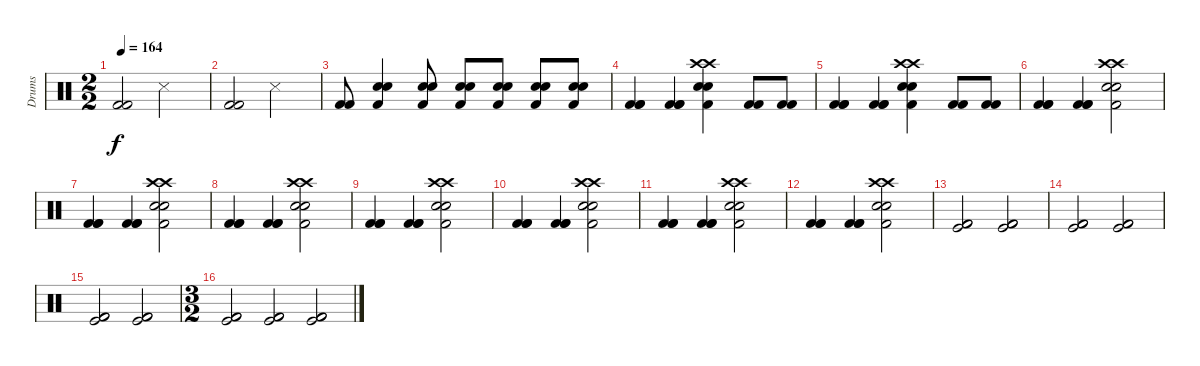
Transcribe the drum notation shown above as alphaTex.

\track ("Drums" "Drums") {instrument percussion}
\staff {score}
\articulation defaults
\ts (2 2)
\tempo 164
\clef neutral
\ks c
("Kick (hit) 2" "Kick (hit) 2").2{dy f} "Snare (side stick) 3".2 |
("Kick (hit) 2" "Kick (hit) 2").2 "Snare (side stick) 3".2 |
("Kick (hit) 2" "Kick (hit) 2").8 ("Kick (hit) 2" "Snare (hit) 2" "Snare (hit) 2").4 ("Kick (hit) 2" "Snare (hit) 2" "Snare (hit) 2").8 ("Kick (hit) 2" "Snare (hit) 2" "Snare (hit) 2").8 ("Kick (hit) 2" "Snare (hit) 2" "Snare (hit) 2").8 ("Kick (hit) 2" "Snare (hit) 2" "Snare (hit) 2").8 ("Kick (hit) 2" "Snare (hit) 2" "Snare (hit) 2").8 |
("Kick (hit) 2" "Kick (hit) 2" "Kick (hit) 2").4 ("Kick (hit) 2" "Kick (hit) 2" "Kick (hit) 2").4 ("Crash high (hit)" "Kick (hit) 2" "Snare (hit) 2" "Snare (hit) 2" "Crash high (hit)").4 ("Kick (hit) 2" "Kick (hit) 2").8 ("Kick (hit) 2" "Kick (hit) 2").8 |
("Kick (hit) 2" "Kick (hit) 2" "Kick (hit) 2").4 ("Kick (hit) 2" "Kick (hit) 2" "Kick (hit) 2").4 ("Crash high (hit)" "Kick (hit) 2" "Snare (hit) 2" "Snare (hit) 2" "Crash high (hit)").4 ("Kick (hit) 2" "Kick (hit) 2").8 ("Kick (hit) 2" "Kick (hit) 2").8 |
("Kick (hit) 2" "Kick (hit) 2" "Kick (hit) 2").4 ("Kick (hit) 2" "Kick (hit) 2" "Kick (hit) 2").4 ("Crash high (hit)" "Kick (hit) 2" "Snare (hit) 2" "Snare (hit) 2" "Crash high (hit)").2 |
("Kick (hit) 2" "Kick (hit) 2" "Kick (hit) 2").4 ("Kick (hit) 2" "Kick (hit) 2" "Kick (hit) 2").4 ("Crash high (hit)" "Kick (hit) 2" "Snare (hit) 2" "Snare (hit) 2" "Crash high (hit)").2 |
("Kick (hit) 2" "Kick (hit) 2" "Kick (hit) 2").4 ("Kick (hit) 2" "Kick (hit) 2" "Kick (hit) 2").4 ("Crash high (hit)" "Kick (hit) 2" "Snare (hit) 2" "Snare (hit) 2" "Crash high (hit)").2 |
("Kick (hit) 2" "Kick (hit) 2" "Kick (hit) 2").4 ("Kick (hit) 2" "Kick (hit) 2" "Kick (hit) 2").4 ("Crash high (hit)" "Kick (hit) 2" "Snare (hit) 2" "Snare (hit) 2" "Crash high (hit)").2 |
("Kick (hit) 2" "Kick (hit) 2" "Kick (hit) 2").4 ("Kick (hit) 2" "Kick (hit) 2" "Kick (hit) 2").4 ("Crash high (hit)" "Kick (hit) 2" "Snare (hit) 2" "Snare (hit) 2" "Crash high (hit)").2 |
("Kick (hit) 2" "Kick (hit) 2" "Kick (hit) 2").4 ("Kick (hit) 2" "Kick (hit) 2" "Kick (hit) 2").4 ("Crash high (hit)" "Kick (hit) 2" "Snare (hit) 2" "Snare (hit) 2" "Crash high (hit)").2 |
("Kick (hit) 2" "Kick (hit) 2" "Kick (hit) 2").4 ("Kick (hit) 2" "Kick (hit) 2" "Kick (hit) 2").4 ("Crash high (hit)" "Kick (hit) 2" "Snare (hit) 2" "Snare (hit) 2" "Crash high (hit)").2 |
("Kick (hit) 2" "Kick (hit) 2" "Kick (hit)").2 ("Kick (hit) 2" "Kick (hit) 2" "Kick (hit)").2 |
("Kick (hit) 2" "Kick (hit) 2" "Kick (hit)").2 ("Kick (hit) 2" "Kick (hit) 2" "Kick (hit)").2 |
("Kick (hit) 2" "Kick (hit) 2" "Kick (hit)").2 ("Kick (hit) 2" "Kick (hit) 2" "Kick (hit)").2 |
\ts (3 2)
("Kick (hit) 2" "Kick (hit) 2" "Kick (hit)").2 ("Kick (hit) 2" "Kick (hit) 2" "Kick (hit)").2 ("Kick (hit) 2" "Kick (hit) 2" "Kick (hit)").2
